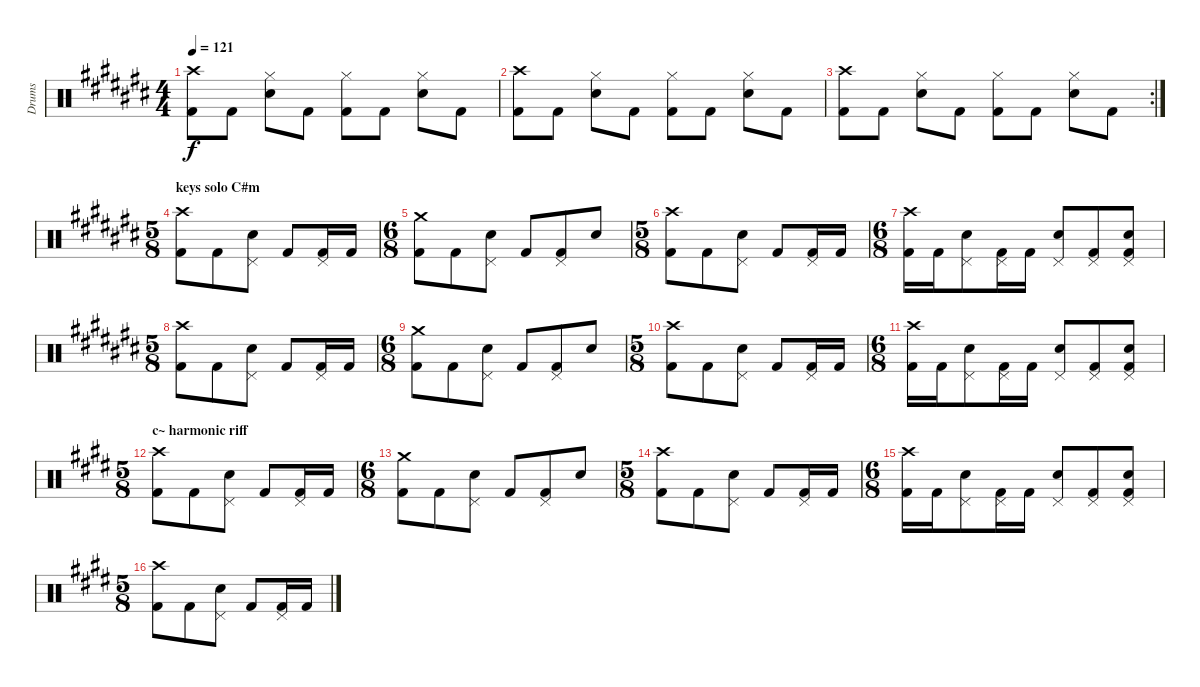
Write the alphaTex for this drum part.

\track ("Drums" "Drums") {instrument percussion}
\staff {score}
\articulation defaults
\ts (4 4)
\tempo 121
\clef neutral
\ks c#
("Crash high (hit)" "Kick (hit) 2").8{dy f} "Kick (hit) 2".8 ("Hi-Hat (closed)" "Electric Snare (hit)").8 "Kick (hit) 2".8 ("Hi-Hat (closed)" "Kick (hit) 2").8 "Kick (hit) 2".8 ("Hi-Hat (closed)" "Electric Snare (hit)").8 "Kick (hit) 2".8 |
("Crash high (hit)" "Kick (hit) 2").8 "Kick (hit) 2".8 ("Hi-Hat (closed)" "Electric Snare (hit)").8 "Kick (hit) 2".8 ("Hi-Hat (closed)" "Kick (hit) 2").8 "Kick (hit) 2".8 ("Hi-Hat (closed)" "Electric Snare (hit)").8 "Kick (hit) 2".8 |
\rc 2
("Crash high (hit)" "Kick (hit) 2").8 "Kick (hit) 2".8 ("Hi-Hat (closed)" "Electric Snare (hit)").8 "Kick (hit) 2".8 ("Hi-Hat (closed)" "Kick (hit) 2").8 "Kick (hit) 2".8 ("Hi-Hat (closed)" "Electric Snare (hit)").8 "Kick (hit) 2".8 |
\ts (5 8)
\section ("" "keys solo C#m")
("Crash high (hit)" "Kick (hit) 2").8 "Kick (hit) 2".8 ("Pedal Hi-Hat (hit)" "Electric Snare (hit)").8 "Kick (hit) 2".8 ("Pedal Hi-Hat (hit)" "Kick (hit) 2").16 "Kick (hit) 2".16 |
\ts (6 8)
("Crash medium (hit)" "Kick (hit) 2").8 "Kick (hit) 2".8 ("Pedal Hi-Hat (hit)" "Electric Snare (hit)").8 "Kick (hit) 2".8 ("Pedal Hi-Hat (hit)" "Kick (hit) 2").8 "Electric Snare (hit)".8 |
\ts (5 8)
("Crash high (hit)" "Kick (hit) 2").8 "Kick (hit) 2".8 ("Pedal Hi-Hat (hit)" "Electric Snare (hit)").8 "Kick (hit) 2".8 ("Pedal Hi-Hat (hit)" "Kick (hit) 2").16 "Kick (hit) 2".16 |
\ts (6 8)
("Crash high (hit)" "Kick (hit) 2").16 "Kick (hit) 2".16 ("Pedal Hi-Hat (hit)" "Electric Snare (hit)").8 ("Pedal Hi-Hat (hit)" "Kick (hit) 2").16 "Kick (hit) 2".16 ("Pedal Hi-Hat (hit)" "Electric Snare (hit)").8 ("Pedal Hi-Hat (hit)" "Kick (hit) 2").8 ("Pedal Hi-Hat (hit)" "Electric Snare (hit)" "Kick (hit) 2").8 |
\ts (5 8)
("Crash high (hit)" "Kick (hit) 2").8 "Kick (hit) 2".8 ("Pedal Hi-Hat (hit)" "Electric Snare (hit)").8 "Kick (hit) 2".8 ("Pedal Hi-Hat (hit)" "Kick (hit) 2").16 "Kick (hit) 2".16 |
\ts (6 8)
("Crash medium (hit)" "Kick (hit) 2").8 "Kick (hit) 2".8 ("Pedal Hi-Hat (hit)" "Electric Snare (hit)").8 "Kick (hit) 2".8 ("Pedal Hi-Hat (hit)" "Kick (hit) 2").8 "Electric Snare (hit)".8 |
\ts (5 8)
("Crash high (hit)" "Kick (hit) 2").8 "Kick (hit) 2".8 ("Pedal Hi-Hat (hit)" "Electric Snare (hit)").8 "Kick (hit) 2".8 ("Pedal Hi-Hat (hit)" "Kick (hit) 2").16 "Kick (hit) 2".16 |
\ts (6 8)
("Crash high (hit)" "Kick (hit) 2").16 "Kick (hit) 2".16 ("Pedal Hi-Hat (hit)" "Electric Snare (hit)").8 ("Pedal Hi-Hat (hit)" "Kick (hit) 2").16 "Kick (hit) 2".16 ("Pedal Hi-Hat (hit)" "Electric Snare (hit)").8 ("Pedal Hi-Hat (hit)" "Kick (hit) 2").8 ("Pedal Hi-Hat (hit)" "Electric Snare (hit)" "Kick (hit) 2").8 |
\ts (5 8)
\section ("" "c~ harmonic riff")
\ks c#minor
("Crash high (hit)" "Kick (hit) 2").8 "Kick (hit) 2".8 ("Pedal Hi-Hat (hit)" "Electric Snare (hit)").8 "Kick (hit) 2".8 ("Pedal Hi-Hat (hit)" "Kick (hit) 2").16 "Kick (hit) 2".16 |
\ts (6 8)
("Crash medium (hit)" "Kick (hit) 2").8 "Kick (hit) 2".8 ("Pedal Hi-Hat (hit)" "Electric Snare (hit)").8 "Kick (hit) 2".8 ("Pedal Hi-Hat (hit)" "Kick (hit) 2").8 "Electric Snare (hit)".8 |
\ts (5 8)
("Crash high (hit)" "Kick (hit) 2").8 "Kick (hit) 2".8 ("Pedal Hi-Hat (hit)" "Electric Snare (hit)").8 "Kick (hit) 2".8 ("Pedal Hi-Hat (hit)" "Kick (hit) 2").16 "Kick (hit) 2".16 |
\ts (6 8)
("Crash high (hit)" "Kick (hit) 2").16 "Kick (hit) 2".16 ("Pedal Hi-Hat (hit)" "Electric Snare (hit)").8 ("Pedal Hi-Hat (hit)" "Kick (hit) 2").16 "Kick (hit) 2".16 ("Pedal Hi-Hat (hit)" "Electric Snare (hit)").8 ("Pedal Hi-Hat (hit)" "Kick (hit) 2").8 ("Pedal Hi-Hat (hit)" "Electric Snare (hit)" "Kick (hit) 2").8 |
\ts (5 8)
("Crash high (hit)" "Kick (hit) 2").8 "Kick (hit) 2".8 ("Pedal Hi-Hat (hit)" "Electric Snare (hit)").8 "Kick (hit) 2".8 ("Pedal Hi-Hat (hit)" "Kick (hit) 2").16 "Kick (hit) 2".16
